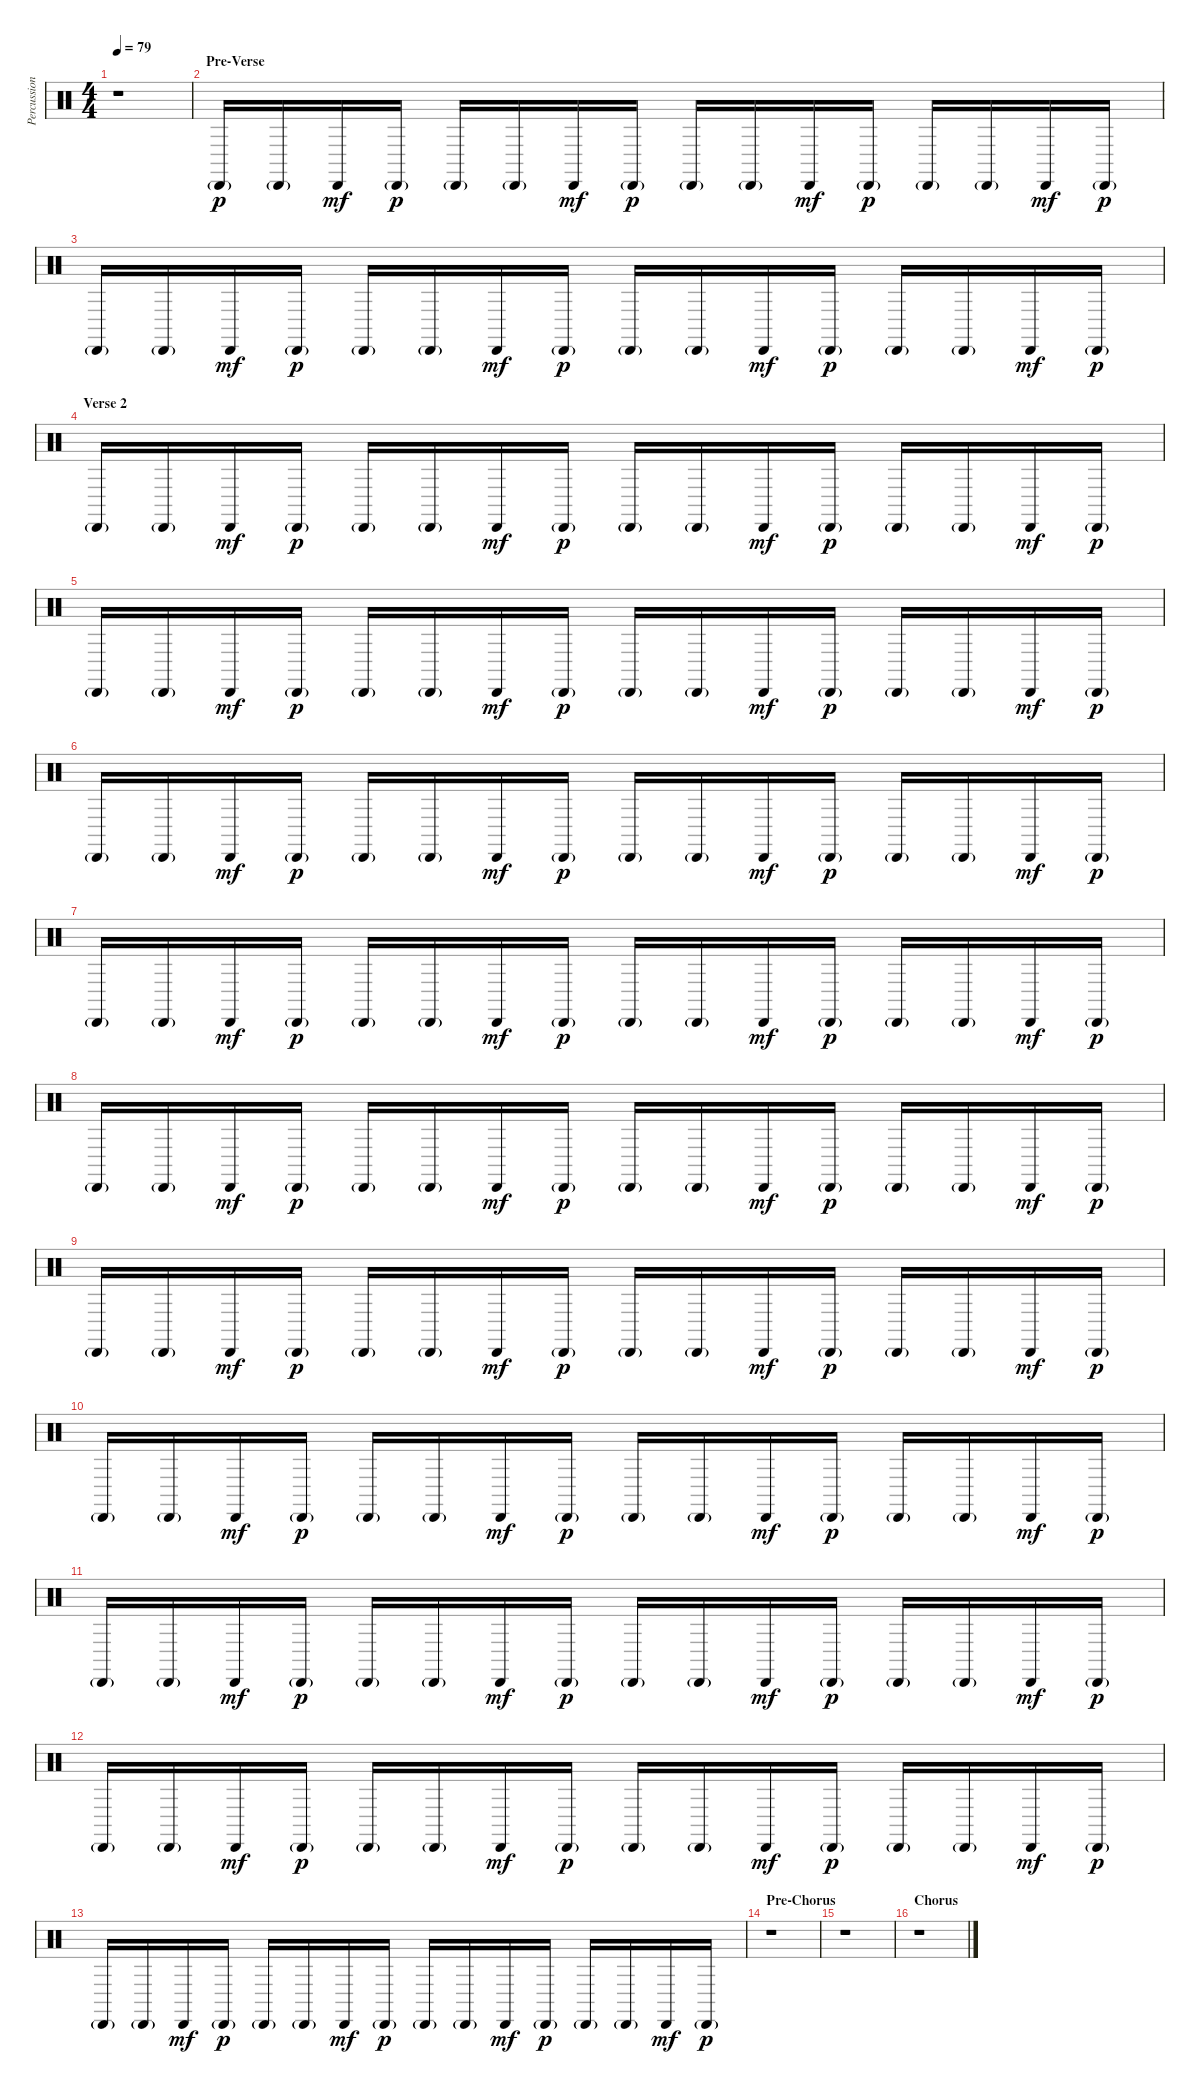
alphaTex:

\track ("Percussion Overdubs" "Percussion") {instrument percussion}
\staff {score}
\articulation defaults
\ts (4 4)
\tempo 79
\clef neutral
\ks c
r.1{dy p} |
\section ("" "Pre-Verse")
"Cabasa (hit)"{g}.16 "Cabasa (hit)"{g}.16 "Cabasa (hit)".16{dy mf} "Cabasa (hit)"{g}.16{dy p} "Cabasa (hit)"{g}.16 "Cabasa (hit)"{g}.16 "Cabasa (hit)".16{dy mf} "Cabasa (hit)"{g}.16{dy p} "Cabasa (hit)"{g}.16 "Cabasa (hit)"{g}.16 "Cabasa (hit)".16{dy mf} "Cabasa (hit)"{g}.16{dy p} "Cabasa (hit)"{g}.16 "Cabasa (hit)"{g}.16 "Cabasa (hit)".16{dy mf} "Cabasa (hit)"{g}.16{dy p} |
"Cabasa (hit)"{g}.16 "Cabasa (hit)"{g}.16 "Cabasa (hit)".16{dy mf} "Cabasa (hit)"{g}.16{dy p} "Cabasa (hit)"{g}.16 "Cabasa (hit)"{g}.16 "Cabasa (hit)".16{dy mf} "Cabasa (hit)"{g}.16{dy p} "Cabasa (hit)"{g}.16 "Cabasa (hit)"{g}.16 "Cabasa (hit)".16{dy mf} "Cabasa (hit)"{g}.16{dy p} "Cabasa (hit)"{g}.16 "Cabasa (hit)"{g}.16 "Cabasa (hit)".16{dy mf} "Cabasa (hit)"{g}.16{dy p} |
\section ("" "Verse 2")
"Cabasa (hit)"{g}.16 "Cabasa (hit)"{g}.16 "Cabasa (hit)".16{dy mf} "Cabasa (hit)"{g}.16{dy p} "Cabasa (hit)"{g}.16 "Cabasa (hit)"{g}.16 "Cabasa (hit)".16{dy mf} "Cabasa (hit)"{g}.16{dy p} "Cabasa (hit)"{g}.16 "Cabasa (hit)"{g}.16 "Cabasa (hit)".16{dy mf} "Cabasa (hit)"{g}.16{dy p} "Cabasa (hit)"{g}.16 "Cabasa (hit)"{g}.16 "Cabasa (hit)".16{dy mf} "Cabasa (hit)"{g}.16{dy p} |
"Cabasa (hit)"{g}.16 "Cabasa (hit)"{g}.16 "Cabasa (hit)".16{dy mf} "Cabasa (hit)"{g}.16{dy p} "Cabasa (hit)"{g}.16 "Cabasa (hit)"{g}.16 "Cabasa (hit)".16{dy mf} "Cabasa (hit)"{g}.16{dy p} "Cabasa (hit)"{g}.16 "Cabasa (hit)"{g}.16 "Cabasa (hit)".16{dy mf} "Cabasa (hit)"{g}.16{dy p} "Cabasa (hit)"{g}.16 "Cabasa (hit)"{g}.16 "Cabasa (hit)".16{dy mf} "Cabasa (hit)"{g}.16{dy p} |
"Cabasa (hit)"{g}.16 "Cabasa (hit)"{g}.16 "Cabasa (hit)".16{dy mf} "Cabasa (hit)"{g}.16{dy p} "Cabasa (hit)"{g}.16 "Cabasa (hit)"{g}.16 "Cabasa (hit)".16{dy mf} "Cabasa (hit)"{g}.16{dy p} "Cabasa (hit)"{g}.16 "Cabasa (hit)"{g}.16 "Cabasa (hit)".16{dy mf} "Cabasa (hit)"{g}.16{dy p} "Cabasa (hit)"{g}.16 "Cabasa (hit)"{g}.16 "Cabasa (hit)".16{dy mf} "Cabasa (hit)"{g}.16{dy p} |
"Cabasa (hit)"{g}.16 "Cabasa (hit)"{g}.16 "Cabasa (hit)".16{dy mf} "Cabasa (hit)"{g}.16{dy p} "Cabasa (hit)"{g}.16 "Cabasa (hit)"{g}.16 "Cabasa (hit)".16{dy mf} "Cabasa (hit)"{g}.16{dy p} "Cabasa (hit)"{g}.16 "Cabasa (hit)"{g}.16 "Cabasa (hit)".16{dy mf} "Cabasa (hit)"{g}.16{dy p} "Cabasa (hit)"{g}.16 "Cabasa (hit)"{g}.16 "Cabasa (hit)".16{dy mf} "Cabasa (hit)"{g}.16{dy p} |
"Cabasa (hit)"{g}.16 "Cabasa (hit)"{g}.16 "Cabasa (hit)".16{dy mf} "Cabasa (hit)"{g}.16{dy p} "Cabasa (hit)"{g}.16 "Cabasa (hit)"{g}.16 "Cabasa (hit)".16{dy mf} "Cabasa (hit)"{g}.16{dy p} "Cabasa (hit)"{g}.16 "Cabasa (hit)"{g}.16 "Cabasa (hit)".16{dy mf} "Cabasa (hit)"{g}.16{dy p} "Cabasa (hit)"{g}.16 "Cabasa (hit)"{g}.16 "Cabasa (hit)".16{dy mf} "Cabasa (hit)"{g}.16{dy p} |
"Cabasa (hit)"{g}.16 "Cabasa (hit)"{g}.16 "Cabasa (hit)".16{dy mf} "Cabasa (hit)"{g}.16{dy p} "Cabasa (hit)"{g}.16 "Cabasa (hit)"{g}.16 "Cabasa (hit)".16{dy mf} "Cabasa (hit)"{g}.16{dy p} "Cabasa (hit)"{g}.16 "Cabasa (hit)"{g}.16 "Cabasa (hit)".16{dy mf} "Cabasa (hit)"{g}.16{dy p} "Cabasa (hit)"{g}.16 "Cabasa (hit)"{g}.16 "Cabasa (hit)".16{dy mf} "Cabasa (hit)"{g}.16{dy p} |
"Cabasa (hit)"{g}.16 "Cabasa (hit)"{g}.16 "Cabasa (hit)".16{dy mf} "Cabasa (hit)"{g}.16{dy p} "Cabasa (hit)"{g}.16 "Cabasa (hit)"{g}.16 "Cabasa (hit)".16{dy mf} "Cabasa (hit)"{g}.16{dy p} "Cabasa (hit)"{g}.16 "Cabasa (hit)"{g}.16 "Cabasa (hit)".16{dy mf} "Cabasa (hit)"{g}.16{dy p} "Cabasa (hit)"{g}.16 "Cabasa (hit)"{g}.16 "Cabasa (hit)".16{dy mf} "Cabasa (hit)"{g}.16{dy p} |
"Cabasa (hit)"{g}.16 "Cabasa (hit)"{g}.16 "Cabasa (hit)".16{dy mf} "Cabasa (hit)"{g}.16{dy p} "Cabasa (hit)"{g}.16 "Cabasa (hit)"{g}.16 "Cabasa (hit)".16{dy mf} "Cabasa (hit)"{g}.16{dy p} "Cabasa (hit)"{g}.16 "Cabasa (hit)"{g}.16 "Cabasa (hit)".16{dy mf} "Cabasa (hit)"{g}.16{dy p} "Cabasa (hit)"{g}.16 "Cabasa (hit)"{g}.16 "Cabasa (hit)".16{dy mf} "Cabasa (hit)"{g}.16{dy p} |
"Cabasa (hit)"{g}.16 "Cabasa (hit)"{g}.16 "Cabasa (hit)".16{dy mf} "Cabasa (hit)"{g}.16{dy p} "Cabasa (hit)"{g}.16 "Cabasa (hit)"{g}.16 "Cabasa (hit)".16{dy mf} "Cabasa (hit)"{g}.16{dy p} "Cabasa (hit)"{g}.16 "Cabasa (hit)"{g}.16 "Cabasa (hit)".16{dy mf} "Cabasa (hit)"{g}.16{dy p} "Cabasa (hit)"{g}.16 "Cabasa (hit)"{g}.16 "Cabasa (hit)".16{dy mf} "Cabasa (hit)"{g}.16{dy p} |
"Cabasa (hit)"{g}.16 "Cabasa (hit)"{g}.16 "Cabasa (hit)".16{dy mf} "Cabasa (hit)"{g}.16{dy p} "Cabasa (hit)"{g}.16 "Cabasa (hit)"{g}.16 "Cabasa (hit)".16{dy mf} "Cabasa (hit)"{g}.16{dy p} "Cabasa (hit)"{g}.16 "Cabasa (hit)"{g}.16 "Cabasa (hit)".16{dy mf} "Cabasa (hit)"{g}.16{dy p} "Cabasa (hit)"{g}.16 "Cabasa (hit)"{g}.16 "Cabasa (hit)".16{dy mf} "Cabasa (hit)"{g}.16{dy p} |
\section ("" "Pre-Chorus")
r.1 |
r.1 |
\section ("" "Chorus")
r.1
